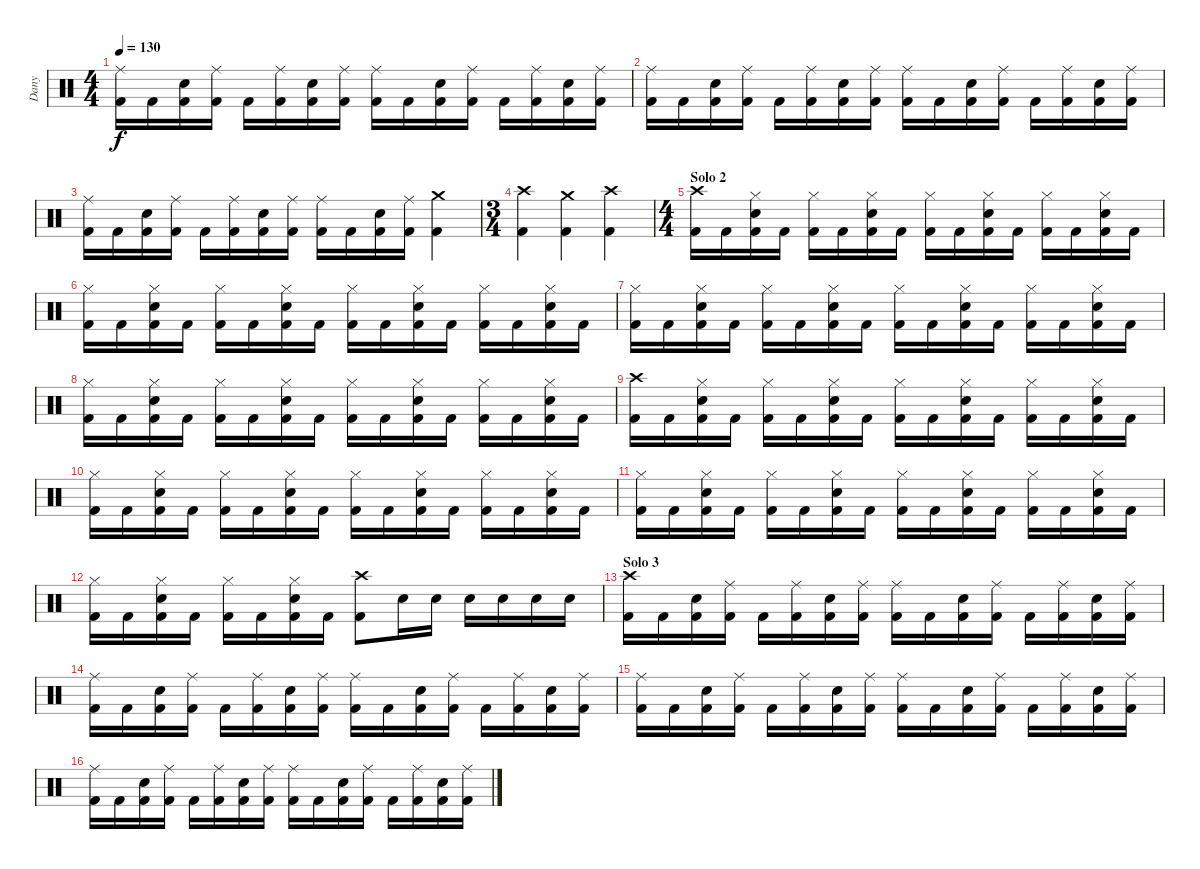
\track ("Dany" "Dany") {instrument percussion}
\staff {score}
\articulation defaults
\ts (4 4)
\tempo 130
\clef neutral
\ks c
("Kick (hit) 2" "Ride (middle)").16{dy f} "Kick (hit) 2".16 ("Kick (hit) 2" "Electric Snare (hit)").16 ("Kick (hit) 2" "Ride (middle)").16 "Kick (hit) 2".16 ("Kick (hit) 2" "Ride (middle)").16 ("Kick (hit) 2" "Electric Snare (hit)").16 ("Kick (hit) 2" "Ride (middle)").16 ("Kick (hit) 2" "Ride (middle)").16 "Kick (hit) 2".16 ("Kick (hit) 2" "Electric Snare (hit)").16 ("Kick (hit) 2" "Ride (middle)").16 "Kick (hit) 2".16 ("Kick (hit) 2" "Ride (middle)").16 ("Kick (hit) 2" "Electric Snare (hit)").16 ("Kick (hit) 2" "Ride (middle)").16 |
("Kick (hit) 2" "Ride (middle)").16 "Kick (hit) 2".16 ("Kick (hit) 2" "Electric Snare (hit)").16 ("Kick (hit) 2" "Ride (middle)").16 "Kick (hit) 2".16 ("Kick (hit) 2" "Ride (middle)").16 ("Kick (hit) 2" "Electric Snare (hit)").16 ("Kick (hit) 2" "Ride (middle)").16 ("Kick (hit) 2" "Ride (middle)").16 "Kick (hit) 2".16 ("Kick (hit) 2" "Electric Snare (hit)").16 ("Kick (hit) 2" "Ride (middle)").16 "Kick (hit) 2".16 ("Kick (hit) 2" "Ride (middle)").16 ("Kick (hit) 2" "Electric Snare (hit)").16 ("Kick (hit) 2" "Ride (middle)").16 |
("Kick (hit) 2" "Ride (middle)").16 "Kick (hit) 2".16 ("Kick (hit) 2" "Electric Snare (hit)").16 ("Kick (hit) 2" "Ride (middle)").16 "Kick (hit) 2".16 ("Kick (hit) 2" "Ride (middle)").16 ("Kick (hit) 2" "Electric Snare (hit)").16 ("Kick (hit) 2" "Ride (middle)").16 ("Kick (hit) 2" "Ride (middle)").16 "Kick (hit) 2".16 ("Kick (hit) 2" "Electric Snare (hit)").16 ("Kick (hit) 2" "Ride (middle)").16 ("Kick (hit) 2" "Crash medium (hit)").4 |
\ts (3 4)
("Kick (hit) 2" "Crash high (hit)").4 ("Kick (hit) 2" "Crash medium (hit)").4 ("Kick (hit) 2" "Crash high (hit)").4 |
\ts (4 4)
\section ("" "Solo 2")
("Kick (hit) 2" "Crash high (hit)").16 "Kick (hit) 2".16 ("Kick (hit) 2" "Electric Snare (hit)" "Hi-Hat (closed)").16 "Kick (hit) 2".16 ("Kick (hit) 2" "Hi-Hat (closed)").16 "Kick (hit) 2".16 ("Kick (hit) 2" "Electric Snare (hit)" "Hi-Hat (closed)").16 "Kick (hit) 2".16 ("Kick (hit) 2" "Hi-Hat (closed)").16 "Kick (hit) 2".16 ("Kick (hit) 2" "Electric Snare (hit)" "Hi-Hat (closed)").16 "Kick (hit) 2".16 ("Kick (hit) 2" "Hi-Hat (closed)").16 "Kick (hit) 2".16 ("Kick (hit) 2" "Electric Snare (hit)" "Hi-Hat (closed)").16 "Kick (hit) 2".16 |
("Kick (hit) 2" "Hi-Hat (closed)").16 "Kick (hit) 2".16 ("Kick (hit) 2" "Electric Snare (hit)" "Hi-Hat (closed)").16 "Kick (hit) 2".16 ("Kick (hit) 2" "Hi-Hat (closed)").16 "Kick (hit) 2".16 ("Kick (hit) 2" "Electric Snare (hit)" "Hi-Hat (closed)").16 "Kick (hit) 2".16 ("Kick (hit) 2" "Hi-Hat (closed)").16 "Kick (hit) 2".16 ("Kick (hit) 2" "Electric Snare (hit)" "Hi-Hat (closed)").16 "Kick (hit) 2".16 ("Kick (hit) 2" "Hi-Hat (closed)").16 "Kick (hit) 2".16 ("Kick (hit) 2" "Electric Snare (hit)" "Hi-Hat (closed)").16 "Kick (hit) 2".16 |
("Kick (hit) 2" "Hi-Hat (closed)").16 "Kick (hit) 2".16 ("Kick (hit) 2" "Electric Snare (hit)" "Hi-Hat (closed)").16 "Kick (hit) 2".16 ("Kick (hit) 2" "Hi-Hat (closed)").16 "Kick (hit) 2".16 ("Kick (hit) 2" "Electric Snare (hit)" "Hi-Hat (closed)").16 "Kick (hit) 2".16 ("Kick (hit) 2" "Hi-Hat (closed)").16 "Kick (hit) 2".16 ("Kick (hit) 2" "Electric Snare (hit)" "Hi-Hat (closed)").16 "Kick (hit) 2".16 ("Kick (hit) 2" "Hi-Hat (closed)").16 "Kick (hit) 2".16 ("Kick (hit) 2" "Electric Snare (hit)" "Hi-Hat (closed)").16 "Kick (hit) 2".16 |
("Kick (hit) 2" "Hi-Hat (closed)").16 "Kick (hit) 2".16 ("Kick (hit) 2" "Electric Snare (hit)" "Hi-Hat (closed)").16 "Kick (hit) 2".16 ("Kick (hit) 2" "Hi-Hat (closed)").16 "Kick (hit) 2".16 ("Kick (hit) 2" "Electric Snare (hit)" "Hi-Hat (closed)").16 "Kick (hit) 2".16 ("Kick (hit) 2" "Hi-Hat (closed)").16 "Kick (hit) 2".16 ("Kick (hit) 2" "Electric Snare (hit)" "Hi-Hat (closed)").16 "Kick (hit) 2".16 ("Kick (hit) 2" "Hi-Hat (closed)").16 "Kick (hit) 2".16 ("Kick (hit) 2" "Electric Snare (hit)" "Hi-Hat (closed)").16 "Kick (hit) 2".16 |
("Kick (hit) 2" "Crash high (hit)").16 "Kick (hit) 2".16 ("Kick (hit) 2" "Electric Snare (hit)" "Hi-Hat (closed)").16 "Kick (hit) 2".16 ("Kick (hit) 2" "Hi-Hat (closed)").16 "Kick (hit) 2".16 ("Kick (hit) 2" "Electric Snare (hit)" "Hi-Hat (closed)").16 "Kick (hit) 2".16 ("Kick (hit) 2" "Hi-Hat (closed)").16 "Kick (hit) 2".16 ("Kick (hit) 2" "Electric Snare (hit)" "Hi-Hat (closed)").16 "Kick (hit) 2".16 ("Kick (hit) 2" "Hi-Hat (closed)").16 "Kick (hit) 2".16 ("Kick (hit) 2" "Electric Snare (hit)" "Hi-Hat (closed)").16 "Kick (hit) 2".16 |
("Kick (hit) 2" "Hi-Hat (closed)").16 "Kick (hit) 2".16 ("Kick (hit) 2" "Electric Snare (hit)" "Hi-Hat (closed)").16 "Kick (hit) 2".16 ("Kick (hit) 2" "Hi-Hat (closed)").16 "Kick (hit) 2".16 ("Kick (hit) 2" "Electric Snare (hit)" "Hi-Hat (closed)").16 "Kick (hit) 2".16 ("Kick (hit) 2" "Hi-Hat (closed)").16 "Kick (hit) 2".16 ("Kick (hit) 2" "Electric Snare (hit)" "Hi-Hat (closed)").16 "Kick (hit) 2".16 ("Kick (hit) 2" "Hi-Hat (closed)").16 "Kick (hit) 2".16 ("Kick (hit) 2" "Electric Snare (hit)" "Hi-Hat (closed)").16 "Kick (hit) 2".16 |
("Kick (hit) 2" "Hi-Hat (closed)").16 "Kick (hit) 2".16 ("Kick (hit) 2" "Electric Snare (hit)" "Hi-Hat (closed)").16 "Kick (hit) 2".16 ("Kick (hit) 2" "Hi-Hat (closed)").16 "Kick (hit) 2".16 ("Kick (hit) 2" "Electric Snare (hit)" "Hi-Hat (closed)").16 "Kick (hit) 2".16 ("Kick (hit) 2" "Hi-Hat (closed)").16 "Kick (hit) 2".16 ("Kick (hit) 2" "Electric Snare (hit)" "Hi-Hat (closed)").16 "Kick (hit) 2".16 ("Kick (hit) 2" "Hi-Hat (closed)").16 "Kick (hit) 2".16 ("Kick (hit) 2" "Electric Snare (hit)" "Hi-Hat (closed)").16 "Kick (hit) 2".16 |
("Kick (hit) 2" "Hi-Hat (closed)").16 "Kick (hit) 2".16 ("Kick (hit) 2" "Electric Snare (hit)" "Hi-Hat (closed)").16 "Kick (hit) 2".16 ("Kick (hit) 2" "Hi-Hat (closed)").16 "Kick (hit) 2".16 ("Kick (hit) 2" "Electric Snare (hit)" "Hi-Hat (closed)").16 "Kick (hit) 2".16 ("Kick (hit) 2" "Crash high (hit)").8 "Electric Snare (hit)".16 "Electric Snare (hit)".16 "Electric Snare (hit)".16 "Electric Snare (hit)".16 "Electric Snare (hit)".16 "Electric Snare (hit)".16 |
\section ("" "Solo 3")
("Kick (hit) 2" "Crash high (hit)").16 "Kick (hit) 2".16 ("Kick (hit) 2" "Electric Snare (hit)").16 ("Kick (hit) 2" "Ride (middle)").16 "Kick (hit) 2".16 ("Kick (hit) 2" "Ride (middle)").16 ("Kick (hit) 2" "Electric Snare (hit)").16 ("Kick (hit) 2" "Ride (middle)").16 ("Kick (hit) 2" "Ride (middle)").16 "Kick (hit) 2".16 ("Kick (hit) 2" "Electric Snare (hit)").16 ("Kick (hit) 2" "Ride (middle)").16 "Kick (hit) 2".16 ("Kick (hit) 2" "Ride (middle)").16 ("Kick (hit) 2" "Electric Snare (hit)").16 ("Kick (hit) 2" "Ride (middle)").16 |
("Kick (hit) 2" "Ride (middle)").16 "Kick (hit) 2".16 ("Kick (hit) 2" "Electric Snare (hit)").16 ("Kick (hit) 2" "Ride (middle)").16 "Kick (hit) 2".16 ("Kick (hit) 2" "Ride (middle)").16 ("Kick (hit) 2" "Electric Snare (hit)").16 ("Kick (hit) 2" "Ride (middle)").16 ("Kick (hit) 2" "Ride (middle)").16 "Kick (hit) 2".16 ("Kick (hit) 2" "Electric Snare (hit)").16 ("Kick (hit) 2" "Ride (middle)").16 "Kick (hit) 2".16 ("Kick (hit) 2" "Ride (middle)").16 ("Kick (hit) 2" "Electric Snare (hit)").16 ("Kick (hit) 2" "Ride (middle)").16 |
("Kick (hit) 2" "Ride (middle)").16 "Kick (hit) 2".16 ("Kick (hit) 2" "Electric Snare (hit)").16 ("Kick (hit) 2" "Ride (middle)").16 "Kick (hit) 2".16 ("Kick (hit) 2" "Ride (middle)").16 ("Kick (hit) 2" "Electric Snare (hit)").16 ("Kick (hit) 2" "Ride (middle)").16 ("Kick (hit) 2" "Ride (middle)").16 "Kick (hit) 2".16 ("Kick (hit) 2" "Electric Snare (hit)").16 ("Kick (hit) 2" "Ride (middle)").16 "Kick (hit) 2".16 ("Kick (hit) 2" "Ride (middle)").16 ("Kick (hit) 2" "Electric Snare (hit)").16 ("Kick (hit) 2" "Ride (middle)").16 |
("Kick (hit) 2" "Ride (middle)").16 "Kick (hit) 2".16 ("Kick (hit) 2" "Electric Snare (hit)").16 ("Kick (hit) 2" "Ride (middle)").16 "Kick (hit) 2".16 ("Kick (hit) 2" "Ride (middle)").16 ("Kick (hit) 2" "Electric Snare (hit)").16 ("Kick (hit) 2" "Ride (middle)").16 ("Kick (hit) 2" "Ride (middle)").16 "Kick (hit) 2".16 ("Kick (hit) 2" "Electric Snare (hit)").16 ("Kick (hit) 2" "Ride (middle)").16 "Kick (hit) 2".16 ("Kick (hit) 2" "Ride (middle)").16 ("Kick (hit) 2" "Electric Snare (hit)").16 ("Kick (hit) 2" "Ride (middle)").16
